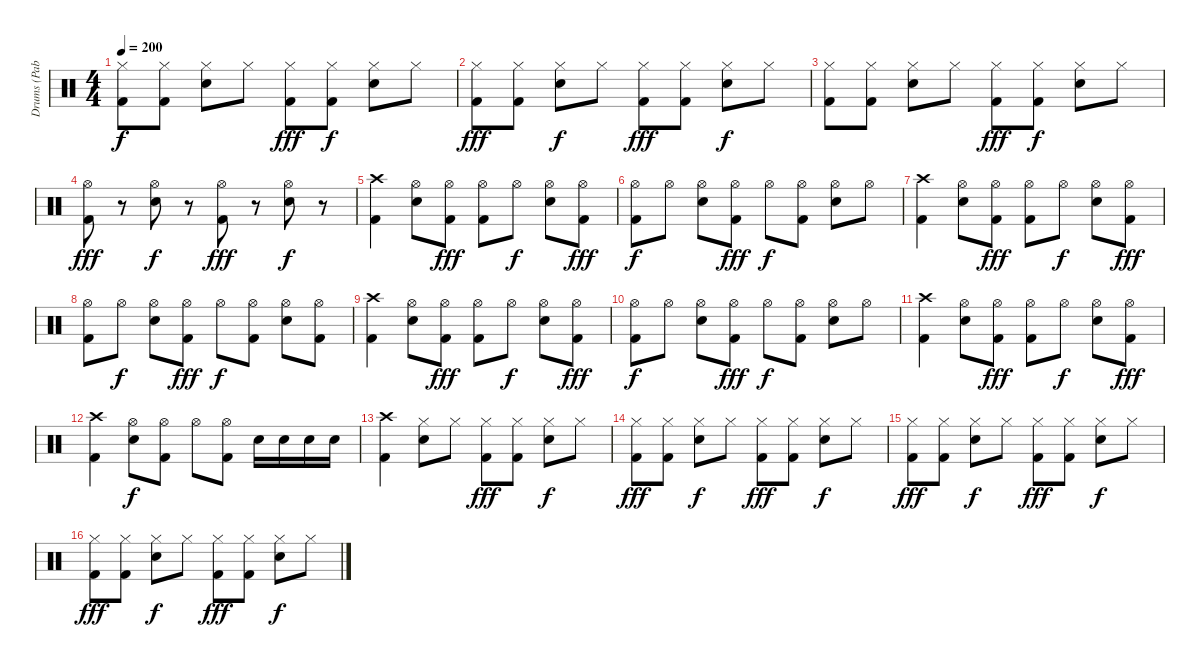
\track ("Drums (Pablo)" "Drums (Pab") {instrument percussion}
\staff {score}
\articulation defaults
\ts (4 4)
\tempo 200
\clef neutral
\ks c
("Hi-Hat (closed)" "Kick (hit) 2").8{dy f} ("Hi-Hat (closed)" "Kick (hit) 2").8 ("Hi-Hat (closed)" "Electric Snare (hit)").8 "Hi-Hat (closed)".8 ("Hi-Hat (closed)" "Kick (hit) 2").8{dy fff} ("Hi-Hat (closed)" "Kick (hit) 2").8{dy f} ("Hi-Hat (closed)" "Electric Snare (hit)").8 "Hi-Hat (closed)".8 |
("Hi-Hat (closed)" "Kick (hit) 2").8{dy fff} ("Hi-Hat (closed)" "Kick (hit) 2").8 ("Hi-Hat (closed)" "Electric Snare (hit)").8{dy f} "Hi-Hat (closed)".8 ("Hi-Hat (closed)" "Kick (hit) 2").8{dy fff} ("Hi-Hat (closed)" "Kick (hit) 2").8 ("Hi-Hat (closed)" "Electric Snare (hit)").8{dy f} "Hi-Hat (closed)".8 |
("Hi-Hat (closed)" "Kick (hit) 2").8 ("Hi-Hat (closed)" "Kick (hit) 2").8 ("Hi-Hat (closed)" "Electric Snare (hit)").8 "Hi-Hat (closed)".8 ("Hi-Hat (closed)" "Kick (hit) 2").8{dy fff} ("Hi-Hat (closed)" "Kick (hit) 2").8{dy f} ("Hi-Hat (closed)" "Electric Snare (hit)").8 "Hi-Hat (closed)".8 |
("Hi-Hat (open)" "Kick (hit) 2").8{dy fff} r.8 ("Hi-Hat (open)" "Electric Snare (hit)").8{dy f} r.8 ("Hi-Hat (open)" "Kick (hit) 2").8{dy fff} r.8 ("Hi-Hat (open)" "Electric Snare (hit)").8{dy f} r.8 |
("Crash high (hit)" "Kick (hit) 2").4 ("Hi-Hat (open)" "Electric Snare (hit)").8 ("Hi-Hat (open)" "Kick (hit) 2").8{dy fff} ("Hi-Hat (open)" "Kick (hit) 2").8 "Hi-Hat (open)".8{dy f} ("Hi-Hat (open)" "Electric Snare (hit)").8 ("Hi-Hat (open)" "Kick (hit) 2").8{dy fff} |
("Hi-Hat (open)" "Kick (hit) 2").8{dy f} "Hi-Hat (open)".8 ("Hi-Hat (open)" "Electric Snare (hit)").8 ("Hi-Hat (open)" "Kick (hit) 2").8{dy fff} "Hi-Hat (open)".8{dy f} ("Hi-Hat (open)" "Kick (hit) 2").8 ("Hi-Hat (open)" "Electric Snare (hit)").8 "Hi-Hat (open)".8 |
("Crash high (hit)" "Kick (hit) 2").4 ("Hi-Hat (open)" "Electric Snare (hit)").8 ("Hi-Hat (open)" "Kick (hit) 2").8{dy fff} ("Hi-Hat (open)" "Kick (hit) 2").8 "Hi-Hat (open)".8{dy f} ("Hi-Hat (open)" "Electric Snare (hit)").8 ("Hi-Hat (open)" "Kick (hit) 2").8{dy fff} |
("Hi-Hat (open)" "Kick (hit) 2").8 "Hi-Hat (open)".8{dy f} ("Hi-Hat (open)" "Electric Snare (hit)").8 ("Hi-Hat (open)" "Kick (hit) 2").8{dy fff} "Hi-Hat (open)".8{dy f} ("Hi-Hat (open)" "Kick (hit) 2").8 ("Hi-Hat (open)" "Electric Snare (hit)").8 ("Hi-Hat (open)" "Kick (hit) 2").8 |
("Crash high (hit)" "Kick (hit) 2").4 ("Hi-Hat (open)" "Electric Snare (hit)").8 ("Hi-Hat (open)" "Kick (hit) 2").8{dy fff} ("Hi-Hat (open)" "Kick (hit) 2").8 "Hi-Hat (open)".8{dy f} ("Hi-Hat (open)" "Electric Snare (hit)").8 ("Hi-Hat (open)" "Kick (hit) 2").8{dy fff} |
("Hi-Hat (open)" "Kick (hit) 2").8{dy f} "Hi-Hat (open)".8 ("Hi-Hat (open)" "Electric Snare (hit)").8 ("Hi-Hat (open)" "Kick (hit) 2").8{dy fff} "Hi-Hat (open)".8{dy f} ("Hi-Hat (open)" "Kick (hit) 2").8 ("Hi-Hat (open)" "Electric Snare (hit)").8 "Hi-Hat (open)".8 |
("Crash high (hit)" "Kick (hit) 2").4 ("Hi-Hat (open)" "Electric Snare (hit)").8 ("Hi-Hat (open)" "Kick (hit) 2").8{dy fff} ("Hi-Hat (open)" "Kick (hit) 2").8 "Hi-Hat (open)".8{dy f} ("Hi-Hat (open)" "Electric Snare (hit)").8 ("Hi-Hat (open)" "Kick (hit) 2").8{dy fff} |
("Crash high (hit)" "Kick (hit) 2").4 ("Hi-Hat (open)" "Electric Snare (hit)").8{dy f} ("Hi-Hat (open)" "Kick (hit) 2").8 "Hi-Hat (open)".8 ("Hi-Hat (open)" "Kick (hit) 2").8 "Electric Snare (hit)".16 "Electric Snare (hit)".16 "Electric Snare (hit)".16 "Electric Snare (hit)".16 |
("Crash high (hit)" "Kick (hit) 2").4 ("Hi-Hat (closed)" "Electric Snare (hit)").8 "Hi-Hat (closed)".8 ("Hi-Hat (closed)" "Kick (hit) 2").8{dy fff} ("Hi-Hat (closed)" "Kick (hit) 2").8 ("Hi-Hat (closed)" "Electric Snare (hit)").8{dy f} "Hi-Hat (closed)".8 |
("Hi-Hat (closed)" "Kick (hit) 2").8{dy fff} ("Hi-Hat (closed)" "Kick (hit) 2").8 ("Hi-Hat (closed)" "Electric Snare (hit)").8{dy f} "Hi-Hat (closed)".8 ("Hi-Hat (closed)" "Kick (hit) 2").8{dy fff} ("Hi-Hat (closed)" "Kick (hit) 2").8 ("Hi-Hat (closed)" "Electric Snare (hit)").8{dy f} "Hi-Hat (closed)".8 |
("Hi-Hat (closed)" "Kick (hit) 2").8{dy fff} ("Hi-Hat (closed)" "Kick (hit) 2").8 ("Hi-Hat (closed)" "Electric Snare (hit)").8{dy f} "Hi-Hat (closed)".8 ("Hi-Hat (closed)" "Kick (hit) 2").8{dy fff} ("Hi-Hat (closed)" "Kick (hit) 2").8 ("Hi-Hat (closed)" "Electric Snare (hit)").8{dy f} "Hi-Hat (closed)".8 |
("Hi-Hat (closed)" "Kick (hit) 2").8{dy fff} ("Hi-Hat (closed)" "Kick (hit) 2").8 ("Hi-Hat (closed)" "Electric Snare (hit)").8{dy f} "Hi-Hat (closed)".8 ("Hi-Hat (closed)" "Kick (hit) 2").8{dy fff} ("Hi-Hat (closed)" "Kick (hit) 2").8 ("Hi-Hat (closed)" "Electric Snare (hit)").8{dy f} "Hi-Hat (closed)".8
